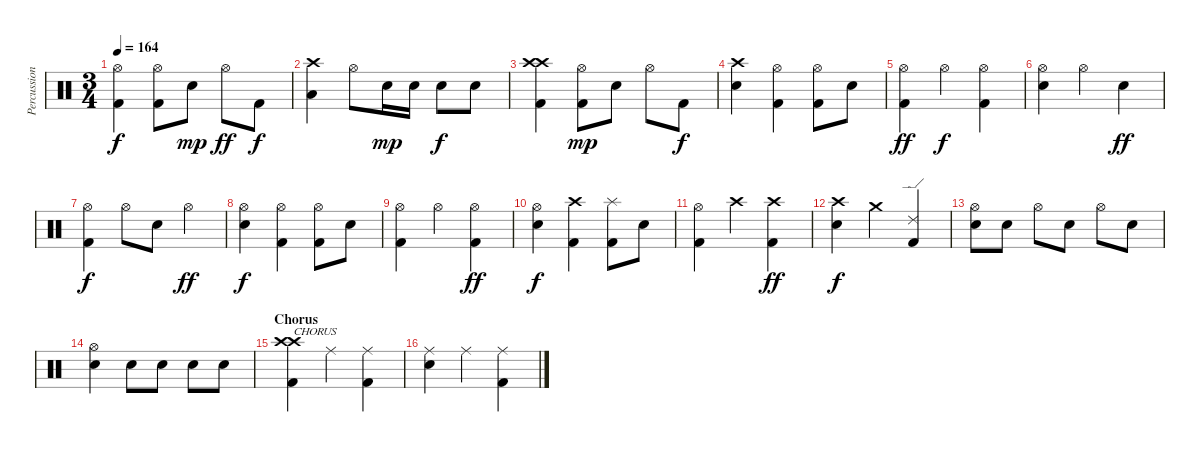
\track ("Percussion" "Percussion") {instrument percussion}
\staff {score}
\articulation defaults
\ts (3 4)
\tempo 164
\clef neutral
\ks c
("Hi-Hat (open)" "Kick (hit) 2").4{dy f} ("Hi-Hat (open)" "Kick (hit) 2").8 "Snare (hit) 2".8{dy mp} "Hi-Hat (open)".8{dy ff} "Kick (hit) 2".8{dy f} |
("Crash high (hit)" "Low Tom (hit)").4 "Hi-Hat (open)".8 "Snare (hit) 2".16{dy mp} "Snare (hit) 2".16 "Snare (hit) 2".8{dy f} "Snare (hit) 2".8 |
("Crash high (hit)" "Crash high (hit)" "Kick (hit) 2").4 ("Hi-Hat (open)" "Kick (hit) 2").8{dy mp} "Snare (hit) 2".8 "Hi-Hat (open)".8 "Kick (hit) 2".8{dy f} |
("Crash high (hit)" "Snare (hit) 2").4 ("Hi-Hat (open)" "Kick (hit) 2").4 ("Hi-Hat (open)" "Kick (hit) 2").8 "Snare (hit) 2".8 |
("Hi-Hat (open)" "Kick (hit) 2").4{dy ff} "Hi-Hat (open)".4{dy f} ("Hi-Hat (open)" "Kick (hit) 2").4 |
("Hi-Hat (open)" "Snare (hit) 2").4 "Hi-Hat (open)".4 "Snare (hit) 2".4{dy ff} |
("Hi-Hat (open)" "Kick (hit) 2").4{dy f} "Hi-Hat (open)".8 "Snare (hit) 2".8 "Hi-Hat (open)".4{dy ff} |
("Hi-Hat (open)" "Snare (hit) 2").4{dy f} ("Hi-Hat (open)" "Kick (hit) 2").4 ("Hi-Hat (open)" "Kick (hit) 2").8 "Snare (hit) 2".8 |
("Hi-Hat (open)" "Kick (hit) 2").4 "Hi-Hat (open)".4 ("Hi-Hat (open)" "Kick (hit) 2").4{dy ff} |
("Hi-Hat (open)" "Snare (hit) 2").4{dy f} ("Crash high (hit)" "Kick (hit) 2").4 ("Splash (hit)" "Kick (hit) 2").8 "Snare (hit) 2".8 |
("Hi-Hat (open)" "Kick (hit) 2").4 "Crash high (hit)".4 ("Crash high (hit)" "Kick (hit) 2").4{dy ff} |
("Crash high (hit)" "Snare (hit) 2").4{dy f} "Crash medium (hit)".4 ("Ride (edge) 2" "Kick (hit) 2").4 |
("Hi-Hat (open)" "Snare (hit) 2").8 "Snare (hit) 2".8 "Hi-Hat (open)".8 "Snare (hit) 2".8 "Hi-Hat (open)".8 "Snare (hit) 2".8 |
("Hi-Hat (open)" "Snare (hit) 2").4 "Snare (hit) 2".8 "Snare (hit) 2".8 "Snare (hit) 2".8 "Snare (hit) 2".8 |
\section ("" "Chorus")
("Crash high (hit)" "Crash high (hit)" "Kick (hit) 2").4{txt "CHORUS"} "Ride (middle)".4 ("Ride (middle)" "Kick (hit) 2").4 |
("Ride (middle)" "Snare (hit) 2").4 "Ride (middle)".4 ("Ride (middle)" "Kick (hit) 2").4
